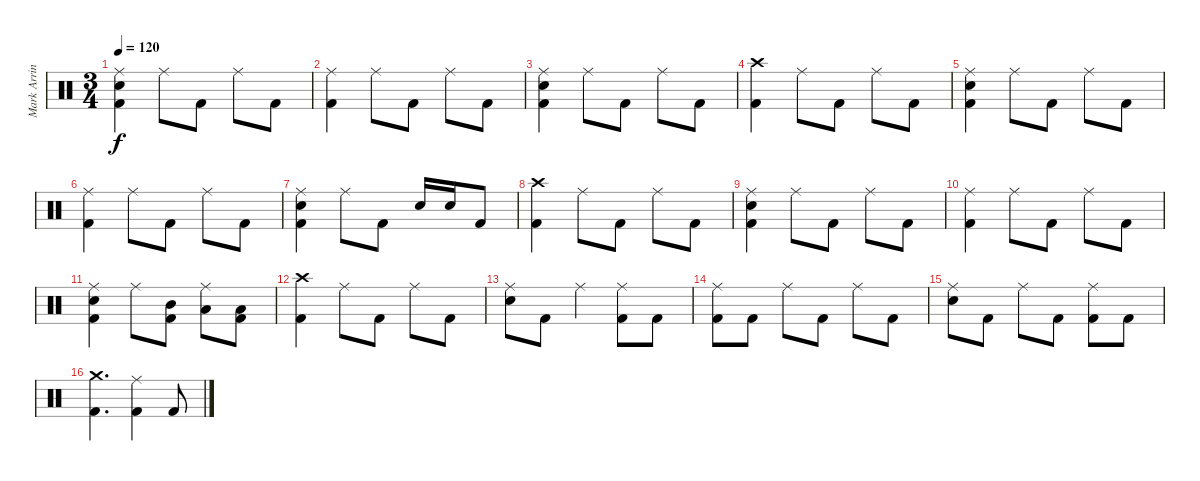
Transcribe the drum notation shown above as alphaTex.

\track ("Mark Arrington Drums" "Mark Arrin") {instrument percussion}
\staff {score}
\articulation defaults
\ts (3 4)
\tempo 120
\clef neutral
\ks c
("Ride (middle)" "Electric Snare (hit)" "Kick (hit) 2").4{dy f} "Ride (middle)".8 "Kick (hit) 2".8 "Ride (middle)".8 "Kick (hit) 2".8 |
("Ride (middle)" "Kick (hit) 2").4 "Ride (middle)".8 "Kick (hit) 2".8 "Ride (middle)".8 "Kick (hit) 2".8 |
("Ride (middle)" "Electric Snare (hit)" "Kick (hit) 2").4 "Ride (middle)".8 "Kick (hit) 2".8 "Ride (middle)".8 "Kick (hit) 2".8 |
("Crash high (hit)" "Kick (hit) 2").4 "Ride (middle)".8 "Kick (hit) 2".8 "Ride (middle)".8 "Kick (hit) 2".8 |
("Ride (middle)" "Electric Snare (hit)" "Kick (hit) 2").4 "Ride (middle)".8 "Kick (hit) 2".8 "Ride (middle)".8 "Kick (hit) 2".8 |
("Ride (middle)" "Kick (hit) 2").4 "Ride (middle)".8 "Kick (hit) 2".8 "Ride (middle)".8 "Kick (hit) 2".8 |
("Ride (middle)" "Electric Snare (hit)" "Kick (hit) 2").4 "Ride (middle)".8 "Kick (hit) 2".8 "Electric Snare (hit)".16 "Electric Snare (hit)".16 "Kick (hit) 2".8 |
("Crash high (hit)" "Kick (hit) 2").4 "Ride (middle)".8 "Kick (hit) 2".8 "Ride (middle)".8 "Kick (hit) 2".8 |
("Ride (middle)" "Electric Snare (hit)" "Kick (hit) 2").4 "Ride (middle)".8 "Kick (hit) 2".8 "Ride (middle)".8 "Kick (hit) 2".8 |
("Ride (middle)" "Kick (hit) 2").4 "Ride (middle)".8 "Kick (hit) 2".8 "Ride (middle)".8 "Kick (hit) 2".8 |
("Ride (middle)" "Electric Snare (hit)" "Kick (hit) 2").4 "Ride (middle)".8 ("Mid Tom (hit)" "Kick (hit) 2").8 ("Ride (middle)" "Low Tom (hit)").8 ("Low Tom (hit)" "Kick (hit) 2").8 |
("Crash high (hit)" "Kick (hit) 2").4 "Ride (middle)".8 "Kick (hit) 2".8 "Ride (middle)".8 "Kick (hit) 2".8 |
("Ride (middle)" "Electric Snare (hit)").8 "Kick (hit) 2".8 "Ride (middle)".4 ("Ride (middle)" "Kick (hit) 2").8 "Kick (hit) 2".8 |
("Ride (middle)" "Kick (hit) 2").8 "Kick (hit) 2".8 "Ride (middle)".8 "Kick (hit) 2".8 "Ride (middle)".8 "Kick (hit) 2".8 |
("Ride (middle)" "Electric Snare (hit)").8 "Kick (hit) 2".8 "Ride (middle)".8 "Kick (hit) 2".8 ("Ride (middle)" "Kick (hit) 2").8 "Kick (hit) 2".8 |
("Crash medium (hit)" "Kick (hit) 2").4{d} ("Ride (middle)" "Kick (hit) 2").4 "Kick (hit) 2".8
